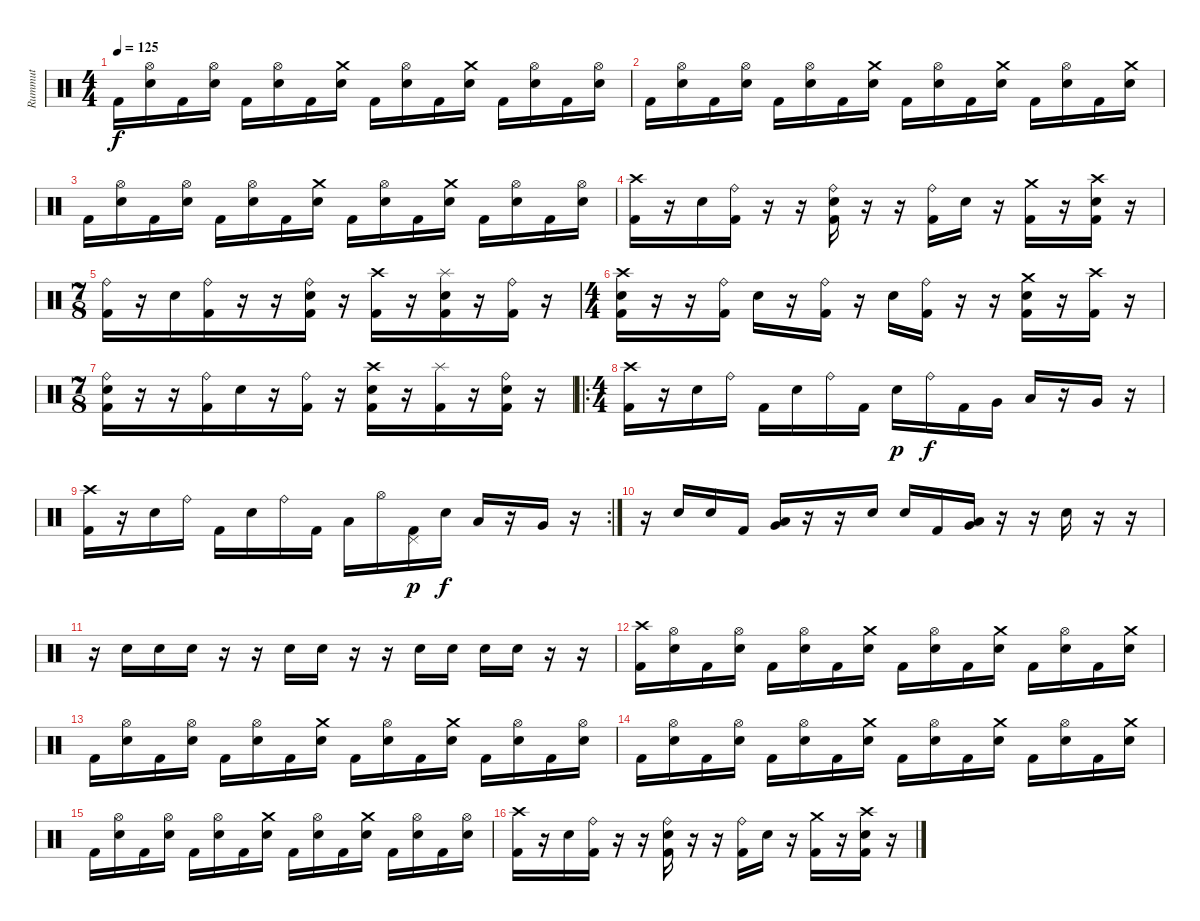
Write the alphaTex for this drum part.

\track ("Rummut" "Rummut") {instrument percussion}
\staff {score}
\articulation defaults
\ts (4 4)
\tempo 125
\clef neutral
\ks c "Kick (hit) 2".16{dy f}
("Hi-Hat (open)" "Electric Snare (hit)").16 "Kick (hit) 2".16 ("Hi-Hat (open)" "Electric Snare (hit)").16 "Kick (hit) 2".16 ("Hi-Hat (open)" "Electric Snare (hit)").16 "Kick (hit) 2".16 ("Crash medium (hit)" "Electric Snare (hit)").16 "Kick (hit) 2".16 ("Hi-Hat (open)" "Electric Snare (hit)").16 "Kick (hit) 2".16 ("Crash medium (hit)" "Electric Snare (hit)").16 "Kick (hit) 2".16 ("Hi-Hat (open)" "Electric Snare (hit)").16 "Kick (hit) 2".16 ("Hi-Hat (open)" "Electric Snare (hit)").16 |
"Kick (hit) 2".16 ("Hi-Hat (open)" "Electric Snare (hit)").16 "Kick (hit) 2".16 ("Hi-Hat (open)" "Electric Snare (hit)").16 "Kick (hit) 2".16 ("Hi-Hat (open)" "Electric Snare (hit)").16 "Kick (hit) 2".16 ("Crash medium (hit)" "Electric Snare (hit)").16 "Kick (hit) 2".16 ("Hi-Hat (open)" "Electric Snare (hit)").16 "Kick (hit) 2".16 ("Crash medium (hit)" "Electric Snare (hit)").16 "Kick (hit) 2".16 ("Hi-Hat (open)" "Electric Snare (hit)").16 "Kick (hit) 2".16 ("Crash medium (hit)" "Electric Snare (hit)").16 |
"Kick (hit) 2".16 ("Hi-Hat (open)" "Electric Snare (hit)").16 "Kick (hit) 2".16 ("Hi-Hat (open)" "Electric Snare (hit)").16 "Kick (hit) 2".16 ("Hi-Hat (open)" "Electric Snare (hit)").16 "Kick (hit) 2".16 ("Crash medium (hit)" "Electric Snare (hit)").16 "Kick (hit) 2".16 ("Hi-Hat (open)" "Electric Snare (hit)").16 "Kick (hit) 2".16 ("Crash medium (hit)" "Electric Snare (hit)").16 "Kick (hit) 2".16 ("Hi-Hat (open)" "Electric Snare (hit)").16 "Kick (hit) 2".16 ("Hi-Hat (open)" "Electric Snare (hit)").16 |
("Crash high (hit)" "Kick (hit) 2").16 r.16 "Electric Snare (hit)".16 ("Ride (bell)" "Kick (hit) 2").16 r.16 r.16 ("Ride (bell)" "Electric Snare (hit)" "Kick (hit) 2").16 r.16 r.16 ("Ride (bell)" "Kick (hit) 2").16 "Electric Snare (hit)".16 r.16 ("Crash medium (hit)" "Kick (hit) 2").16 r.16 ("Crash high (hit)" "Electric Snare (hit)" "Kick (hit) 2").16 r.16 |
\ts (7 8)
("Ride (bell)" "Kick (hit) 2").16 r.16 "Electric Snare (hit)".16 ("Ride (bell)" "Kick (hit) 2").16 r.16 r.16 ("Ride (bell)" "Electric Snare (hit)" "Kick (hit) 2").16 r.16 ("Crash high (hit)" "Kick (hit) 2").16 r.16 ("Splash (hit)" "Electric Snare (hit)" "Kick (hit) 2").16 r.16 ("Ride (bell)" "Kick (hit) 2").16 r.16 |
\ts (4 4)
("Crash high (hit)" "Electric Snare (hit)" "Kick (hit) 2").16 r.16 r.16 ("Ride (bell)" "Kick (hit) 2").16 "Electric Snare (hit)".16 r.16 ("Ride (bell)" "Kick (hit) 2").16 r.16 "Electric Snare (hit)".16 ("Ride (bell)" "Kick (hit) 2").16 r.16 r.16 ("Crash medium (hit)" "Electric Snare (hit)" "Kick (hit) 2").16 r.16 ("Crash high (hit)" "Kick (hit) 2").16 r.16 |
\ts (7 8)
("Ride (bell)" "Electric Snare (hit)" "Kick (hit) 2").16 r.16 r.16 ("Ride (bell)" "Kick (hit) 2").16 "Electric Snare (hit)".16 r.16 ("Ride (bell)" "Kick (hit) 2").16 r.16 ("Crash high (hit)" "Electric Snare (hit)" "Kick (hit) 2").16 r.16 ("Splash (hit)" "Kick (hit) 2").16 r.16 ("Ride (bell)" "Electric Snare (hit)" "Kick (hit) 2").16 r.16 |
\ro
\ts (4 4)
("Crash high (hit)" "Kick (hit) 2").16 r.16 "Electric Snare (hit)".16 "Ride (bell)".16 "Kick (hit) 2".16 "Electric Snare (hit)".16 "Ride (bell)".16 "Kick (hit) 2".16 "Electric Snare (hit)".16{dy p} "Ride (bell)".16{dy f} "Kick (hit) 2".16 "Very Low Tom (hit)".16 "Low Tom (hit)".16 r.16 "Very Low Tom (hit)".16 r.16 |
\rc 2
("Crash high (hit)" "Kick (hit) 2").16 r.16 "Electric Snare (hit)".16 "Ride (bell)".16 "Kick (hit) 2".16 "Electric Snare (hit)".16 "Ride (bell)".16 "Kick (hit) 2".16 "Low Tom (hit)".16 "Hi-Hat (open)".16 ("Pedal Hi-Hat (hit)" "Kick (hit) 2").16{dy p} "Electric Snare (hit)".16{dy f} "Low Tom (hit)".16 r.16 "Very Low Tom (hit)".16 r.16 |
r.16 "Electric Snare (hit)".16 "Electric Snare (hit)".16 "Kick (hit) 2".16 ("Very Low Tom (hit)" "Low Floor Tom (hit)").16 r.16 r.16 "Electric Snare (hit)".16 "Electric Snare (hit)".16 "Kick (hit) 2".16 ("Very Low Tom (hit)" "Low Floor Tom (hit)").16 r.16 r.16 "Electric Snare (hit)".16 r.16 r.16 |
r.16 "Electric Snare (hit)".16 "Electric Snare (hit)".16 "Electric Snare (hit)".16 r.16 r.16 "Electric Snare (hit)".16 "Electric Snare (hit)".16 r.16 r.16 "Electric Snare (hit)".16 "Electric Snare (hit)".16 "Electric Snare (hit)".16 "Electric Snare (hit)".16 r.16 r.16 |
("Crash high (hit)" "Kick (hit) 2").16 ("Hi-Hat (open)" "Electric Snare (hit)").16 "Kick (hit) 2".16 ("Hi-Hat (open)" "Electric Snare (hit)").16 "Kick (hit) 2".16 ("Hi-Hat (open)" "Electric Snare (hit)").16 "Kick (hit) 2".16 ("Crash medium (hit)" "Electric Snare (hit)").16 "Kick (hit) 2".16 ("Hi-Hat (open)" "Electric Snare (hit)").16 "Kick (hit) 2".16 ("Crash medium (hit)" "Electric Snare (hit)").16 "Kick (hit) 2".16 ("Hi-Hat (open)" "Electric Snare (hit)").16 "Kick (hit) 2".16 ("Crash medium (hit)" "Electric Snare (hit)").16 |
"Kick (hit) 2".16 ("Hi-Hat (open)" "Electric Snare (hit)").16 "Kick (hit) 2".16 ("Hi-Hat (open)" "Electric Snare (hit)").16 "Kick (hit) 2".16 ("Hi-Hat (open)" "Electric Snare (hit)").16 "Kick (hit) 2".16 ("Crash medium (hit)" "Electric Snare (hit)").16 "Kick (hit) 2".16 ("Hi-Hat (open)" "Electric Snare (hit)").16 "Kick (hit) 2".16 ("Crash medium (hit)" "Electric Snare (hit)").16 "Kick (hit) 2".16 ("Hi-Hat (open)" "Electric Snare (hit)").16 "Kick (hit) 2".16 ("Hi-Hat (open)" "Electric Snare (hit)").16 |
"Kick (hit) 2".16 ("Hi-Hat (open)" "Electric Snare (hit)").16 "Kick (hit) 2".16 ("Hi-Hat (open)" "Electric Snare (hit)").16 "Kick (hit) 2".16 ("Hi-Hat (open)" "Electric Snare (hit)").16 "Kick (hit) 2".16 ("Crash medium (hit)" "Electric Snare (hit)").16 "Kick (hit) 2".16 ("Hi-Hat (open)" "Electric Snare (hit)").16 "Kick (hit) 2".16 ("Crash medium (hit)" "Electric Snare (hit)").16 "Kick (hit) 2".16 ("Hi-Hat (open)" "Electric Snare (hit)").16 "Kick (hit) 2".16 ("Crash medium (hit)" "Electric Snare (hit)").16 |
"Kick (hit) 2".16 ("Hi-Hat (open)" "Electric Snare (hit)").16 "Kick (hit) 2".16 ("Hi-Hat (open)" "Electric Snare (hit)").16 "Kick (hit) 2".16 ("Hi-Hat (open)" "Electric Snare (hit)").16 "Kick (hit) 2".16 ("Crash medium (hit)" "Electric Snare (hit)").16 "Kick (hit) 2".16 ("Hi-Hat (open)" "Electric Snare (hit)").16 "Kick (hit) 2".16 ("Crash medium (hit)" "Electric Snare (hit)").16 "Kick (hit) 2".16 ("Hi-Hat (open)" "Electric Snare (hit)").16 "Kick (hit) 2".16 ("Hi-Hat (open)" "Electric Snare (hit)").16 |
("Crash high (hit)" "Kick (hit) 2").16 r.16 "Electric Snare (hit)".16 ("Ride (bell)" "Kick (hit) 2").16 r.16 r.16 ("Ride (bell)" "Electric Snare (hit)" "Kick (hit) 2").16 r.16 r.16 ("Ride (bell)" "Kick (hit) 2").16 "Electric Snare (hit)".16 r.16 ("Crash medium (hit)" "Kick (hit) 2").16 r.16 ("Crash high (hit)" "Electric Snare (hit)" "Kick (hit) 2").16 r.16
